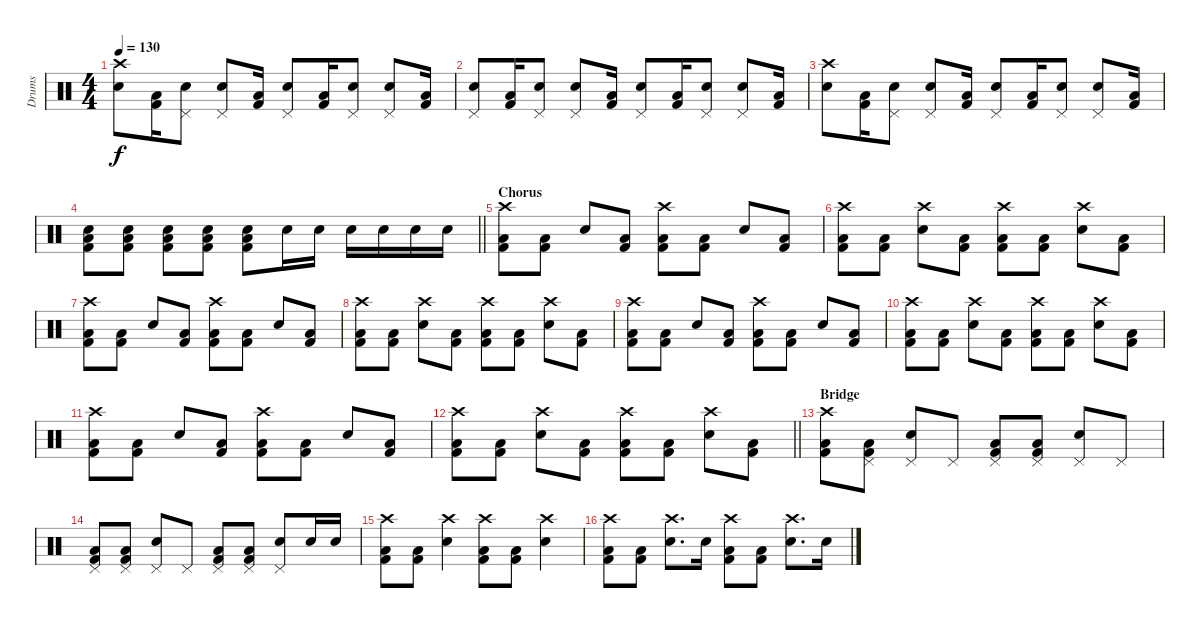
\track ("Drums" "Drums") {instrument percussion}
\staff {score}
\articulation defaults
\ts (4 4)
\tempo 130
\clef neutral
\ks c
("Electric Snare (hit)" "Crash high (hit)").8{dy f} ("Kick (hit) 2" "Low Floor Tom (hit)").16 ("Electric Snare (hit)" "Pedal Hi-Hat (hit)").8 ("Electric Snare (hit)" "Pedal Hi-Hat (hit)").8 ("Kick (hit) 2" "Low Floor Tom (hit)").16 ("Electric Snare (hit)" "Pedal Hi-Hat (hit)").8 ("Kick (hit) 2" "Low Floor Tom (hit)").16 ("Electric Snare (hit)" "Pedal Hi-Hat (hit)").8 ("Electric Snare (hit)" "Pedal Hi-Hat (hit)").8 ("Kick (hit) 2" "Low Floor Tom (hit)").16 |
("Electric Snare (hit)" "Pedal Hi-Hat (hit)").8 ("Kick (hit) 2" "Low Floor Tom (hit)").16 ("Electric Snare (hit)" "Pedal Hi-Hat (hit)").8 ("Electric Snare (hit)" "Pedal Hi-Hat (hit)").8 ("Kick (hit) 2" "Low Floor Tom (hit)").16 ("Electric Snare (hit)" "Pedal Hi-Hat (hit)").8 ("Kick (hit) 2" "Low Floor Tom (hit)").16 ("Electric Snare (hit)" "Pedal Hi-Hat (hit)").8 ("Electric Snare (hit)" "Pedal Hi-Hat (hit)").8 ("Kick (hit) 2" "Low Floor Tom (hit)").16 |
("Electric Snare (hit)" "Crash high (hit)").8 ("Kick (hit) 2" "Low Floor Tom (hit)").16 ("Electric Snare (hit)" "Pedal Hi-Hat (hit)").8 ("Electric Snare (hit)" "Pedal Hi-Hat (hit)").8 ("Kick (hit) 2" "Low Floor Tom (hit)").16 ("Electric Snare (hit)" "Pedal Hi-Hat (hit)").8 ("Kick (hit) 2" "Low Floor Tom (hit)").16 ("Electric Snare (hit)" "Pedal Hi-Hat (hit)").8 ("Electric Snare (hit)" "Pedal Hi-Hat (hit)").8 ("Kick (hit) 2" "Low Floor Tom (hit)").16 |
\barLineRight lightlight
("Kick (hit) 2" "Low Floor Tom (hit)" "Electric Snare (hit)").8 ("Kick (hit) 2" "Low Floor Tom (hit)" "Electric Snare (hit)").8 ("Kick (hit) 2" "Low Floor Tom (hit)" "Electric Snare (hit)").8 ("Kick (hit) 2" "Low Floor Tom (hit)" "Electric Snare (hit)").8 ("Kick (hit) 2" "Low Floor Tom (hit)" "Electric Snare (hit)").8 "Electric Snare (hit)".16 "Electric Snare (hit)".16 "Electric Snare (hit)".16 "Electric Snare (hit)".16 "Electric Snare (hit)".16 "Electric Snare (hit)".16 |
\section ("" "Chorus")
("Kick (hit) 2" "Low Floor Tom (hit)" "Crash high (hit)").8 ("Kick (hit) 2" "Low Floor Tom (hit)").8 "Electric Snare (hit)".8 ("Kick (hit) 2" "Low Floor Tom (hit)").8 ("Kick (hit) 2" "Low Floor Tom (hit)" "Crash high (hit)").8 ("Kick (hit) 2" "Low Floor Tom (hit)").8 "Electric Snare (hit)".8 ("Kick (hit) 2" "Low Floor Tom (hit)").8 |
("Kick (hit) 2" "Low Floor Tom (hit)" "Crash high (hit)").8 ("Kick (hit) 2" "Low Floor Tom (hit)").8 ("Electric Snare (hit)" "Crash high (hit)").8 ("Kick (hit) 2" "Low Floor Tom (hit)").8 ("Kick (hit) 2" "Low Floor Tom (hit)" "Crash high (hit)").8 ("Kick (hit) 2" "Low Floor Tom (hit)").8 ("Electric Snare (hit)" "Crash high (hit)").8 ("Kick (hit) 2" "Low Floor Tom (hit)").8 |
("Kick (hit) 2" "Low Floor Tom (hit)" "Crash high (hit)").8 ("Kick (hit) 2" "Low Floor Tom (hit)").8 "Electric Snare (hit)".8 ("Kick (hit) 2" "Low Floor Tom (hit)").8 ("Kick (hit) 2" "Low Floor Tom (hit)" "Crash high (hit)").8 ("Kick (hit) 2" "Low Floor Tom (hit)").8 "Electric Snare (hit)".8 ("Kick (hit) 2" "Low Floor Tom (hit)").8 |
("Kick (hit) 2" "Low Floor Tom (hit)" "Crash high (hit)").8 ("Kick (hit) 2" "Low Floor Tom (hit)").8 ("Electric Snare (hit)" "Crash high (hit)").8 ("Kick (hit) 2" "Low Floor Tom (hit)").8 ("Kick (hit) 2" "Low Floor Tom (hit)" "Crash high (hit)").8 ("Kick (hit) 2" "Low Floor Tom (hit)").8 ("Electric Snare (hit)" "Crash high (hit)").8 ("Kick (hit) 2" "Low Floor Tom (hit)").8 |
("Kick (hit) 2" "Low Floor Tom (hit)" "Crash high (hit)").8 ("Kick (hit) 2" "Low Floor Tom (hit)").8 "Electric Snare (hit)".8 ("Kick (hit) 2" "Low Floor Tom (hit)").8 ("Kick (hit) 2" "Low Floor Tom (hit)" "Crash high (hit)").8 ("Kick (hit) 2" "Low Floor Tom (hit)").8 "Electric Snare (hit)".8 ("Kick (hit) 2" "Low Floor Tom (hit)").8 |
("Kick (hit) 2" "Low Floor Tom (hit)" "Crash high (hit)").8 ("Kick (hit) 2" "Low Floor Tom (hit)").8 ("Electric Snare (hit)" "Crash high (hit)").8 ("Kick (hit) 2" "Low Floor Tom (hit)").8 ("Kick (hit) 2" "Low Floor Tom (hit)" "Crash high (hit)").8 ("Kick (hit) 2" "Low Floor Tom (hit)").8 ("Electric Snare (hit)" "Crash high (hit)").8 ("Kick (hit) 2" "Low Floor Tom (hit)").8 |
("Kick (hit) 2" "Low Floor Tom (hit)" "Crash high (hit)").8 ("Kick (hit) 2" "Low Floor Tom (hit)").8 "Electric Snare (hit)".8 ("Kick (hit) 2" "Low Floor Tom (hit)").8 ("Kick (hit) 2" "Low Floor Tom (hit)" "Crash high (hit)").8 ("Kick (hit) 2" "Low Floor Tom (hit)").8 "Electric Snare (hit)".8 ("Kick (hit) 2" "Low Floor Tom (hit)").8 |
\barLineRight lightlight
("Kick (hit) 2" "Low Floor Tom (hit)" "Crash high (hit)").8 ("Kick (hit) 2" "Low Floor Tom (hit)").8 ("Electric Snare (hit)" "Crash high (hit)").8 ("Kick (hit) 2" "Low Floor Tom (hit)").8 ("Kick (hit) 2" "Low Floor Tom (hit)" "Crash high (hit)").8 ("Kick (hit) 2" "Low Floor Tom (hit)").8 ("Electric Snare (hit)" "Crash high (hit)").8 ("Kick (hit) 2" "Low Floor Tom (hit)").8 |
\section ("" "Bridge")
("Kick (hit) 2" "Low Floor Tom (hit)" "Crash high (hit)").8 ("Kick (hit) 2" "Low Floor Tom (hit)" "Pedal Hi-Hat (hit)").8 ("Electric Snare (hit)" "Pedal Hi-Hat (hit)").8 "Pedal Hi-Hat (hit)".8 ("Kick (hit) 2" "Low Floor Tom (hit)" "Pedal Hi-Hat (hit)").8 ("Kick (hit) 2" "Low Floor Tom (hit)" "Pedal Hi-Hat (hit)").8 ("Electric Snare (hit)" "Pedal Hi-Hat (hit)").8 "Pedal Hi-Hat (hit)".8 |
("Kick (hit) 2" "Low Floor Tom (hit)" "Pedal Hi-Hat (hit)").8 ("Kick (hit) 2" "Low Floor Tom (hit)" "Pedal Hi-Hat (hit)").8 ("Electric Snare (hit)" "Pedal Hi-Hat (hit)").8 "Pedal Hi-Hat (hit)".8 ("Kick (hit) 2" "Low Floor Tom (hit)" "Pedal Hi-Hat (hit)").8 ("Kick (hit) 2" "Low Floor Tom (hit)" "Pedal Hi-Hat (hit)").8 ("Electric Snare (hit)" "Pedal Hi-Hat (hit)").8 "Electric Snare (hit)".16 "Electric Snare (hit)".16 |
("Kick (hit) 2" "Low Floor Tom (hit)" "Crash high (hit)").8 ("Kick (hit) 2" "Low Floor Tom (hit)").8 ("Electric Snare (hit)" "Crash high (hit)").4 ("Kick (hit) 2" "Low Floor Tom (hit)" "Crash high (hit)").8 ("Kick (hit) 2" "Low Floor Tom (hit)").8 ("Electric Snare (hit)" "Crash high (hit)").4 |
("Kick (hit) 2" "Low Floor Tom (hit)" "Crash high (hit)").8 ("Kick (hit) 2" "Low Floor Tom (hit)").8 ("Electric Snare (hit)" "Crash high (hit)").8{d} "Electric Snare (hit)".16 ("Kick (hit) 2" "Low Floor Tom (hit)" "Crash high (hit)").8 ("Kick (hit) 2" "Low Floor Tom (hit)").8 ("Electric Snare (hit)" "Crash high (hit)").8{d} "Electric Snare (hit)".16
